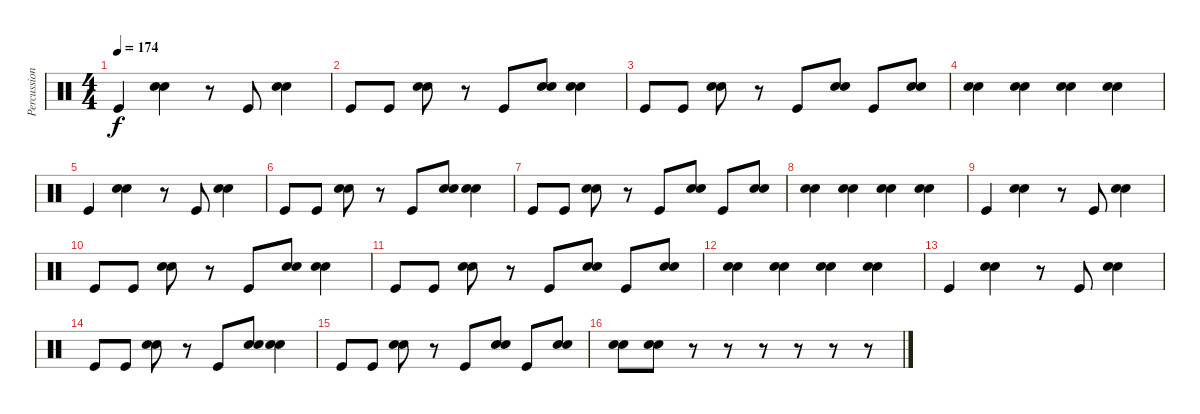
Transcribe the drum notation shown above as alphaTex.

\track ("Percussion" "Percussion") {instrument percussion}
\staff {score}
\articulation defaults
\ts (4 4)
\tempo 174
\clef neutral
\ks c "Kick (hit)".4{dy f}
("Snare (hit) 2" "Snare (hit) 2").4 r.8 "Kick (hit)".8 ("Snare (hit) 2" "Snare (hit) 2").4 |
"Kick (hit)".8 "Kick (hit)".8 ("Snare (hit) 2" "Snare (hit) 2").8 r.8 "Kick (hit)".8 ("Snare (hit) 2" "Snare (hit) 2").8 ("Snare (hit) 2" "Snare (hit) 2").4 |
"Kick (hit)".8 "Kick (hit)".8 ("Snare (hit) 2" "Snare (hit) 2").8 r.8 "Kick (hit)".8 ("Snare (hit) 2" "Snare (hit) 2").8 "Kick (hit)".8 ("Snare (hit) 2" "Snare (hit) 2").8 |
("Snare (hit) 2" "Snare (hit) 2").4 ("Snare (hit) 2" "Snare (hit) 2").4 ("Snare (hit) 2" "Snare (hit) 2").4 ("Snare (hit) 2" "Snare (hit) 2").4 |
"Kick (hit)".4 ("Snare (hit) 2" "Snare (hit) 2").4 r.8 "Kick (hit)".8 ("Snare (hit) 2" "Snare (hit) 2").4 |
"Kick (hit)".8 "Kick (hit)".8 ("Snare (hit) 2" "Snare (hit) 2").8 r.8 "Kick (hit)".8 ("Snare (hit) 2" "Snare (hit) 2").8 ("Snare (hit) 2" "Snare (hit) 2").4 |
"Kick (hit)".8 "Kick (hit)".8 ("Snare (hit) 2" "Snare (hit) 2").8 r.8 "Kick (hit)".8 ("Snare (hit) 2" "Snare (hit) 2").8 "Kick (hit)".8 ("Snare (hit) 2" "Snare (hit) 2").8 |
("Snare (hit) 2" "Snare (hit) 2").4 ("Snare (hit) 2" "Snare (hit) 2").4 ("Snare (hit) 2" "Snare (hit) 2").4 ("Snare (hit) 2" "Snare (hit) 2").4 |
"Kick (hit)".4 ("Snare (hit) 2" "Snare (hit) 2").4 r.8 "Kick (hit)".8 ("Snare (hit) 2" "Snare (hit) 2").4 |
"Kick (hit)".8 "Kick (hit)".8 ("Snare (hit) 2" "Snare (hit) 2").8 r.8 "Kick (hit)".8 ("Snare (hit) 2" "Snare (hit) 2").8 ("Snare (hit) 2" "Snare (hit) 2").4 |
"Kick (hit)".8 "Kick (hit)".8 ("Snare (hit) 2" "Snare (hit) 2").8 r.8 "Kick (hit)".8 ("Snare (hit) 2" "Snare (hit) 2").8 "Kick (hit)".8 ("Snare (hit) 2" "Snare (hit) 2").8 |
("Snare (hit) 2" "Snare (hit) 2").4 ("Snare (hit) 2" "Snare (hit) 2").4 ("Snare (hit) 2" "Snare (hit) 2").4 ("Snare (hit) 2" "Snare (hit) 2").4 |
"Kick (hit)".4 ("Snare (hit) 2" "Snare (hit) 2").4 r.8 "Kick (hit)".8 ("Snare (hit) 2" "Snare (hit) 2").4 |
"Kick (hit)".8 "Kick (hit)".8 ("Snare (hit) 2" "Snare (hit) 2").8 r.8 "Kick (hit)".8 ("Snare (hit) 2" "Snare (hit) 2").8 ("Snare (hit) 2" "Snare (hit) 2").4 |
"Kick (hit)".8 "Kick (hit)".8 ("Snare (hit) 2" "Snare (hit) 2").8 r.8 "Kick (hit)".8 ("Snare (hit) 2" "Snare (hit) 2").8 "Kick (hit)".8 ("Snare (hit) 2" "Snare (hit) 2").8 |
("Snare (hit) 2" "Snare (hit) 2").8 ("Snare (hit) 2" "Snare (hit) 2").8 r.8 r.8 r.8 r.8 r.8 r.8
